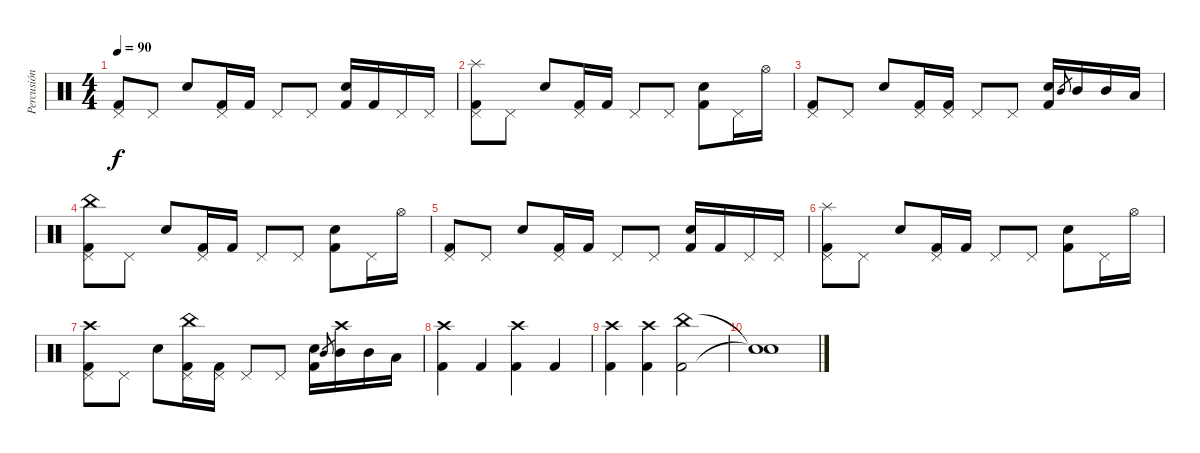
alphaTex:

\track ("Percusión" "Percusión") {instrument percussion}
\staff {score}
\articulation defaults
\ts (4 4)
\tempo 90
\clef neutral
\ks c
("Pedal Hi-Hat (hit)" "Kick (hit) 2").8{dy f} "Pedal Hi-Hat (hit)".8 "Electric Snare (hit)".8 ("Pedal Hi-Hat (hit)" "Kick (hit) 2").16 "Kick (hit) 2".16 "Pedal Hi-Hat (hit)".8 "Pedal Hi-Hat (hit)".8 ("Electric Snare (hit)" "Kick (hit) 2").16 "Kick (hit) 2".16 "Pedal Hi-Hat (hit)".16 "Pedal Hi-Hat (hit)".16 |
("Splash (hit)" "Pedal Hi-Hat (hit)" "Kick (hit) 2").8 "Pedal Hi-Hat (hit)".8 "Electric Snare (hit)".8 ("Pedal Hi-Hat (hit)" "Kick (hit) 2").16 "Kick (hit) 2".16 "Pedal Hi-Hat (hit)".8 "Pedal Hi-Hat (hit)".8 ("Electric Snare (hit)" "Kick (hit) 2").8 "Pedal Hi-Hat (hit)".16 "Hi-Hat (open)".16 |
("Pedal Hi-Hat (hit)" "Kick (hit) 2").8 "Pedal Hi-Hat (hit)".8 "Electric Snare (hit)".8 ("Pedal Hi-Hat (hit)" "Kick (hit) 2").16 ("Pedal Hi-Hat (hit)" "Kick (hit) 2").16 "Pedal Hi-Hat (hit)".8 "Pedal Hi-Hat (hit)".8 ("Electric Snare (hit)" "Kick (hit) 2").16 "Mid Tom (hit)".8{gr} "Mid Tom (hit)".16 "Mid Tom (hit)".16 "Low Tom (hit)".16 |
("China (hit)" "Pedal Hi-Hat (hit)" "Kick (hit) 2").8 "Pedal Hi-Hat (hit)".8 "Electric Snare (hit)".8 ("Pedal Hi-Hat (hit)" "Kick (hit) 2").16 "Kick (hit) 2".16 "Pedal Hi-Hat (hit)".8 "Pedal Hi-Hat (hit)".8 ("Electric Snare (hit)" "Kick (hit) 2").8 "Pedal Hi-Hat (hit)".16 "Hi-Hat (open)".16 |
("Pedal Hi-Hat (hit)" "Kick (hit) 2").8 "Pedal Hi-Hat (hit)".8 "Electric Snare (hit)".8 ("Pedal Hi-Hat (hit)" "Kick (hit) 2").16 "Kick (hit) 2".16 "Pedal Hi-Hat (hit)".8 "Pedal Hi-Hat (hit)".8 ("Electric Snare (hit)" "Kick (hit) 2").16 "Kick (hit) 2".16 "Pedal Hi-Hat (hit)".16 "Pedal Hi-Hat (hit)".16 |
("Splash (hit)" "Pedal Hi-Hat (hit)" "Kick (hit) 2").8 "Pedal Hi-Hat (hit)".8 "Electric Snare (hit)".8 ("Pedal Hi-Hat (hit)" "Kick (hit) 2").16 "Kick (hit) 2".16 "Pedal Hi-Hat (hit)".8 "Pedal Hi-Hat (hit)".8 ("Electric Snare (hit)" "Kick (hit) 2").8 "Pedal Hi-Hat (hit)".16 "Hi-Hat (open)".16 |
("Crash high (hit)" "Pedal Hi-Hat (hit)" "Kick (hit) 2").8 "Pedal Hi-Hat (hit)".8 "Electric Snare (hit)".8 ("China (hit)" "Pedal Hi-Hat (hit)" "Kick (hit) 2").16 ("Pedal Hi-Hat (hit)" "Kick (hit) 2").16 "Pedal Hi-Hat (hit)".8 "Pedal Hi-Hat (hit)".8 ("Electric Snare (hit)" "Kick (hit) 2").16 "Mid Tom (hit)".8{gr} ("Crash high (hit)" "Mid Tom (hit)").16 "Mid Tom (hit)".16 "Low Tom (hit)".16 |
("Crash high (hit)" "Kick (hit) 2").4 "Kick (hit) 2".4 ("Crash high (hit)" "Kick (hit) 2").4 "Kick (hit) 2".4 |
("Crash high (hit)" "Kick (hit) 2").4 ("Crash high (hit)" "Kick (hit) 2").4 ("China (hit)" "Kick (hit) 2").2 |
("Snare (hit)"{t} "Snare (hit)"{t}).1
